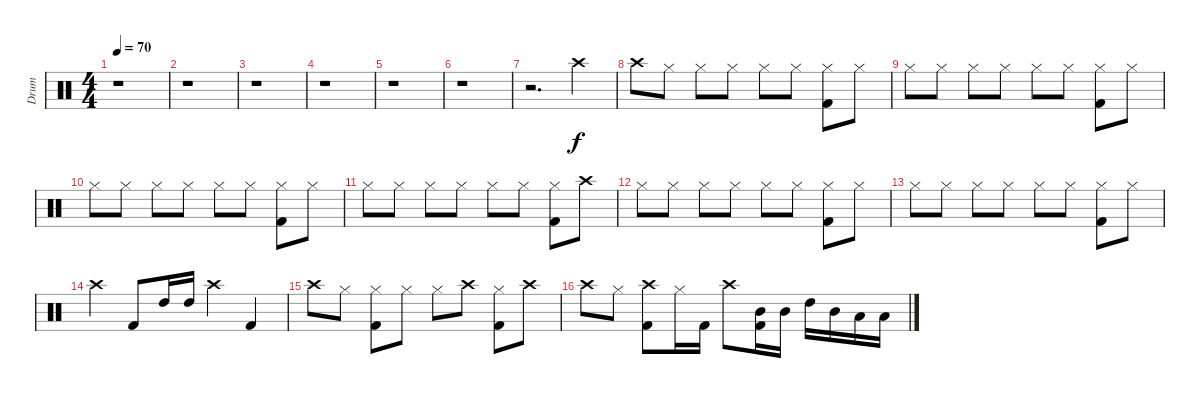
\track ("Drum" "Drum") {instrument percussion}
\staff {score}
\articulation defaults
\ts (4 4)
\tempo 70
\clef neutral
\ks c
r.1{dy f} |
r.1 |
r.1 |
r.1 |
r.1 |
r.1 |
r.2{d} "Crash high (hit)".4 |
"Crash high (hit)".8 "Hi-Hat (closed)".8 "Hi-Hat (closed)".8 "Hi-Hat (closed)".8 "Hi-Hat (closed)".8 "Hi-Hat (closed)".8 ("Hi-Hat (closed)" "Kick (hit) 2").8 "Hi-Hat (closed)".8 |
"Hi-Hat (closed)".8 "Hi-Hat (closed)".8 "Hi-Hat (closed)".8 "Hi-Hat (closed)".8 "Hi-Hat (closed)".8 "Hi-Hat (closed)".8 ("Hi-Hat (closed)" "Kick (hit) 2").8 "Hi-Hat (closed)".8 |
"Hi-Hat (closed)".8 "Hi-Hat (closed)".8 "Hi-Hat (closed)".8 "Hi-Hat (closed)".8 "Hi-Hat (closed)".8 "Hi-Hat (closed)".8 ("Hi-Hat (closed)" "Kick (hit) 2").8 "Hi-Hat (closed)".8 |
"Hi-Hat (closed)".8 "Hi-Hat (closed)".8 "Hi-Hat (closed)".8 "Hi-Hat (closed)".8 "Hi-Hat (closed)".8 "Hi-Hat (closed)".8 ("Hi-Hat (closed)" "Kick (hit) 2").8 "Crash high (hit)".8 |
"Hi-Hat (closed)".8 "Hi-Hat (closed)".8 "Hi-Hat (closed)".8 "Hi-Hat (closed)".8 "Hi-Hat (closed)".8 "Hi-Hat (closed)".8 ("Hi-Hat (closed)" "Kick (hit) 2").8 "Hi-Hat (closed)".8 |
"Hi-Hat (closed)".8 "Hi-Hat (closed)".8 "Hi-Hat (closed)".8 "Hi-Hat (closed)".8 "Hi-Hat (closed)".8 "Hi-Hat (closed)".8 ("Hi-Hat (closed)" "Kick (hit) 2").8 "Hi-Hat (closed)".8 |
"Crash high (hit)".4 "Kick (hit) 2".8 "High Tom (hit)".16 "High Tom (hit)".16 "Crash high (hit)".4 "Kick (hit) 2".4 |
"Crash high (hit)".8 "Hi-Hat (closed)".8 ("Hi-Hat (closed)" "Kick (hit) 2").8 "Hi-Hat (closed)".8 "Hi-Hat (closed)".8 "Crash high (hit)".8 ("Hi-Hat (closed)" "Kick (hit) 2").8 "Crash high (hit)".8 |
"Crash high (hit)".8 "Hi-Hat (closed)".8 ("Crash high (hit)" "Kick (hit) 2").8 "Hi-Hat (closed)".16 "Kick (hit) 2".16 "Crash high (hit)".8 ("Mid Tom (hit)" "Kick (hit) 2").16 "Mid Tom (hit)".16 "High Tom (hit)".16 "Mid Tom (hit)".16 "Low Tom (hit)".16 "Low Floor Tom (hit)".16
